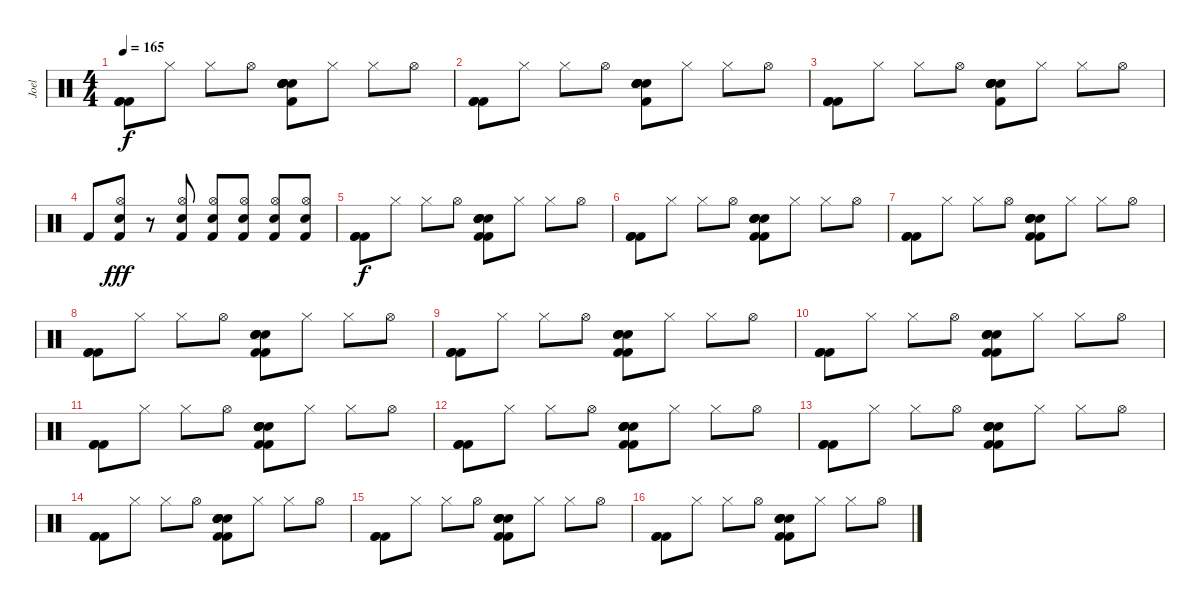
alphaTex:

\track ("Joel" "Joel") {instrument percussion}
\staff {score}
\articulation defaults
\ts (4 4)
\tempo 165
\clef neutral
\ks c
("Kick (hit) 2" "Kick (hit) 2" "Kick (hit) 2").8{dy f} "Hi-Hat (closed)".8 "Hi-Hat (closed)".8 "Hi-Hat (open)".8 ("Electric Snare (hit)" "Electric Snare (hit)" "Electric Snare (hit)" "Electric Snare (hit)" "Kick (hit) 2" "Electric Snare (hit)").8 "Hi-Hat (closed)".8 "Hi-Hat (closed)".8 "Hi-Hat (open)".8 |
("Kick (hit) 2" "Kick (hit) 2" "Kick (hit) 2").8 "Hi-Hat (closed)".8 "Hi-Hat (closed)".8 "Hi-Hat (open)".8 ("Electric Snare (hit)" "Electric Snare (hit)" "Electric Snare (hit)" "Electric Snare (hit)" "Kick (hit) 2" "Electric Snare (hit)").8 "Hi-Hat (closed)".8 "Hi-Hat (closed)".8 "Hi-Hat (open)".8 |
("Kick (hit) 2" "Kick (hit) 2" "Kick (hit) 2").8 "Hi-Hat (closed)".8 "Hi-Hat (closed)".8 "Hi-Hat (open)".8 ("Electric Snare (hit)" "Electric Snare (hit)" "Electric Snare (hit)" "Electric Snare (hit)" "Kick (hit) 2" "Electric Snare (hit)").8 "Hi-Hat (closed)".8 "Hi-Hat (closed)".8 "Hi-Hat (open)".8 |
"Kick (hit) 2".8 ("Hi-Hat (open)" "Kick (hit) 2" "Electric Snare (hit)").8{dy fff} r.8 ("Hi-Hat (open)" "Kick (hit) 2" "Electric Snare (hit)").8 ("Hi-Hat (open)" "Kick (hit) 2" "Electric Snare (hit)").8 ("Hi-Hat (open)" "Kick (hit) 2" "Electric Snare (hit)").8 ("Hi-Hat (open)" "Kick (hit) 2" "Electric Snare (hit)").8 ("Hi-Hat (open)" "Kick (hit) 2" "Electric Snare (hit)").8 |
("Kick (hit) 2" "Kick (hit) 2" "Kick (hit) 2").8{dy f} "Hi-Hat (closed)".8 "Hi-Hat (closed)".8 "Hi-Hat (open)".8 ("Kick (hit) 2" "Electric Snare (hit)" "Electric Snare (hit)" "Kick (hit) 2" "Electric Snare (hit)" "Electric Snare (hit)").8 "Hi-Hat (closed)".8 "Hi-Hat (closed)".8 "Hi-Hat (open)".8 |
("Kick (hit) 2" "Kick (hit) 2" "Kick (hit) 2").8 "Hi-Hat (closed)".8 "Hi-Hat (closed)".8 "Hi-Hat (open)".8 ("Kick (hit) 2" "Electric Snare (hit)" "Electric Snare (hit)" "Kick (hit) 2" "Electric Snare (hit)" "Electric Snare (hit)").8 "Hi-Hat (closed)".8 "Hi-Hat (closed)".8 "Hi-Hat (open)".8 |
("Kick (hit) 2" "Kick (hit) 2" "Kick (hit) 2").8 "Hi-Hat (closed)".8 "Hi-Hat (closed)".8 "Hi-Hat (open)".8 ("Kick (hit) 2" "Electric Snare (hit)" "Electric Snare (hit)" "Kick (hit) 2" "Electric Snare (hit)" "Electric Snare (hit)").8 "Hi-Hat (closed)".8 "Hi-Hat (closed)".8 "Hi-Hat (open)".8 |
("Kick (hit) 2" "Kick (hit) 2" "Kick (hit) 2").8 "Hi-Hat (closed)".8 "Hi-Hat (closed)".8 "Hi-Hat (open)".8 ("Kick (hit) 2" "Electric Snare (hit)" "Electric Snare (hit)" "Kick (hit) 2" "Electric Snare (hit)" "Electric Snare (hit)").8 "Hi-Hat (closed)".8 "Hi-Hat (closed)".8 "Hi-Hat (open)".8 |
("Kick (hit) 2" "Kick (hit) 2" "Kick (hit) 2").8 "Hi-Hat (closed)".8 "Hi-Hat (closed)".8 "Hi-Hat (open)".8 ("Kick (hit) 2" "Electric Snare (hit)" "Electric Snare (hit)" "Kick (hit) 2" "Electric Snare (hit)" "Electric Snare (hit)").8 "Hi-Hat (closed)".8 "Hi-Hat (closed)".8 "Hi-Hat (open)".8 |
("Kick (hit) 2" "Kick (hit) 2" "Kick (hit) 2").8 "Hi-Hat (closed)".8 "Hi-Hat (closed)".8 "Hi-Hat (open)".8 ("Kick (hit) 2" "Electric Snare (hit)" "Electric Snare (hit)" "Kick (hit) 2" "Electric Snare (hit)" "Electric Snare (hit)").8 "Hi-Hat (closed)".8 "Hi-Hat (closed)".8 "Hi-Hat (open)".8 |
("Kick (hit) 2" "Kick (hit) 2" "Kick (hit) 2").8 "Hi-Hat (closed)".8 "Hi-Hat (closed)".8 "Hi-Hat (open)".8 ("Kick (hit) 2" "Electric Snare (hit)" "Electric Snare (hit)" "Kick (hit) 2" "Electric Snare (hit)" "Electric Snare (hit)").8 "Hi-Hat (closed)".8 "Hi-Hat (closed)".8 "Hi-Hat (open)".8 |
("Kick (hit) 2" "Kick (hit) 2" "Kick (hit) 2").8 "Hi-Hat (closed)".8 "Hi-Hat (closed)".8 "Hi-Hat (open)".8 ("Kick (hit) 2" "Electric Snare (hit)" "Electric Snare (hit)" "Kick (hit) 2" "Electric Snare (hit)" "Electric Snare (hit)").8 "Hi-Hat (closed)".8 "Hi-Hat (closed)".8 "Hi-Hat (open)".8 |
("Kick (hit) 2" "Kick (hit) 2" "Kick (hit) 2").8 "Hi-Hat (closed)".8 "Hi-Hat (closed)".8 "Hi-Hat (open)".8 ("Kick (hit) 2" "Electric Snare (hit)" "Electric Snare (hit)" "Kick (hit) 2" "Electric Snare (hit)" "Electric Snare (hit)").8 "Hi-Hat (closed)".8 "Hi-Hat (closed)".8 "Hi-Hat (open)".8 |
("Kick (hit) 2" "Kick (hit) 2" "Kick (hit) 2").8 "Hi-Hat (closed)".8 "Hi-Hat (closed)".8 "Hi-Hat (open)".8 ("Kick (hit) 2" "Electric Snare (hit)" "Electric Snare (hit)" "Kick (hit) 2" "Electric Snare (hit)" "Electric Snare (hit)").8 "Hi-Hat (closed)".8 "Hi-Hat (closed)".8 "Hi-Hat (open)".8 |
("Kick (hit) 2" "Kick (hit) 2" "Kick (hit) 2").8 "Hi-Hat (closed)".8 "Hi-Hat (closed)".8 "Hi-Hat (open)".8 ("Kick (hit) 2" "Electric Snare (hit)" "Electric Snare (hit)" "Kick (hit) 2" "Electric Snare (hit)" "Electric Snare (hit)").8 "Hi-Hat (closed)".8 "Hi-Hat (closed)".8 "Hi-Hat (open)".8 |
("Kick (hit) 2" "Kick (hit) 2" "Kick (hit) 2").8 "Hi-Hat (closed)".8 "Hi-Hat (closed)".8 "Hi-Hat (open)".8 ("Kick (hit) 2" "Electric Snare (hit)" "Electric Snare (hit)" "Kick (hit) 2" "Electric Snare (hit)" "Electric Snare (hit)").8 "Hi-Hat (closed)".8 "Hi-Hat (closed)".8 "Hi-Hat (open)".8
